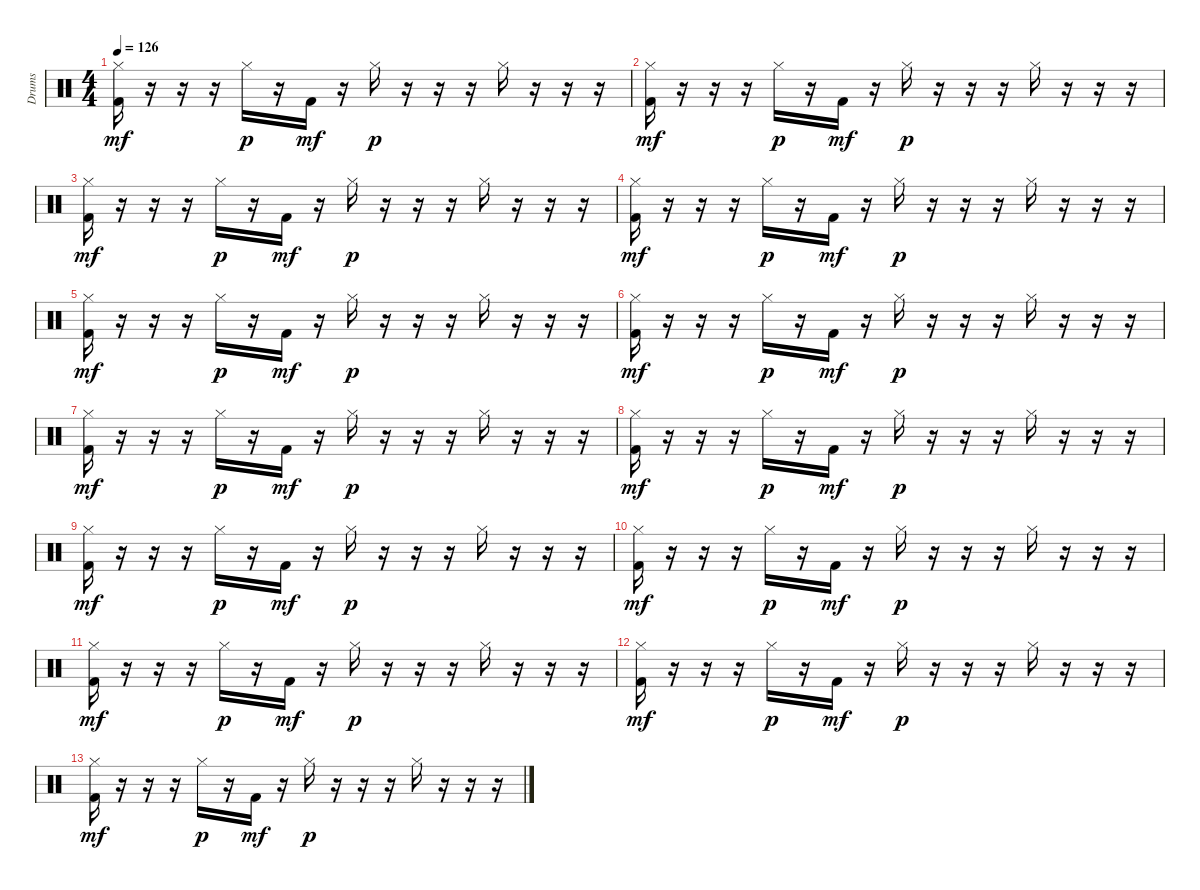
\track ("Drums" "Drums") {instrument percussion}
\staff {score}
\articulation defaults
\ts (4 4)
\tempo 126
\clef neutral
\ks c
("Hi-Hat (closed)" "Kick (hit) 2").16{dy mf} r.16 r.16 r.16 "Hi-Hat (closed)".16{dy p} r.16 "Kick (hit) 2".16{dy mf} r.16 "Hi-Hat (closed)".16{dy p} r.16 r.16 r.16 "Hi-Hat (closed)".16 r.16 r.16 r.16 |
("Hi-Hat (closed)" "Kick (hit) 2").16{dy mf} r.16 r.16 r.16 "Hi-Hat (closed)".16{dy p} r.16 "Kick (hit) 2".16{dy mf} r.16 "Hi-Hat (closed)".16{dy p} r.16 r.16 r.16 "Hi-Hat (closed)".16 r.16 r.16 r.16 |
("Hi-Hat (closed)" "Kick (hit) 2").16{dy mf} r.16 r.16 r.16 "Hi-Hat (closed)".16{dy p} r.16 "Kick (hit) 2".16{dy mf} r.16 "Hi-Hat (closed)".16{dy p} r.16 r.16 r.16 "Hi-Hat (closed)".16 r.16 r.16 r.16 |
("Hi-Hat (closed)" "Kick (hit) 2").16{dy mf} r.16 r.16 r.16 "Hi-Hat (closed)".16{dy p} r.16 "Kick (hit) 2".16{dy mf} r.16 "Hi-Hat (closed)".16{dy p} r.16 r.16 r.16 "Hi-Hat (closed)".16 r.16 r.16 r.16 |
("Hi-Hat (closed)" "Kick (hit) 2").16{dy mf} r.16 r.16 r.16 "Hi-Hat (closed)".16{dy p} r.16 "Kick (hit) 2".16{dy mf} r.16 "Hi-Hat (closed)".16{dy p} r.16 r.16 r.16 "Hi-Hat (closed)".16 r.16 r.16 r.16 |
("Hi-Hat (closed)" "Kick (hit) 2").16{dy mf} r.16 r.16 r.16 "Hi-Hat (closed)".16{dy p} r.16 "Kick (hit) 2".16{dy mf} r.16 "Hi-Hat (closed)".16{dy p} r.16 r.16 r.16 "Hi-Hat (closed)".16 r.16 r.16 r.16 |
("Hi-Hat (closed)" "Kick (hit) 2").16{dy mf} r.16 r.16 r.16 "Hi-Hat (closed)".16{dy p} r.16 "Kick (hit) 2".16{dy mf} r.16 "Hi-Hat (closed)".16{dy p} r.16 r.16 r.16 "Hi-Hat (closed)".16 r.16 r.16 r.16 |
("Hi-Hat (closed)" "Kick (hit) 2").16{dy mf} r.16 r.16 r.16 "Hi-Hat (closed)".16{dy p} r.16 "Kick (hit) 2".16{dy mf} r.16 "Hi-Hat (closed)".16{dy p} r.16 r.16 r.16 "Hi-Hat (closed)".16 r.16 r.16 r.16 |
("Hi-Hat (closed)" "Kick (hit) 2").16{dy mf} r.16 r.16 r.16 "Hi-Hat (closed)".16{dy p} r.16 "Kick (hit) 2".16{dy mf} r.16 "Hi-Hat (closed)".16{dy p} r.16 r.16 r.16 "Hi-Hat (closed)".16 r.16 r.16 r.16 |
("Hi-Hat (closed)" "Kick (hit) 2").16{dy mf} r.16 r.16 r.16 "Hi-Hat (closed)".16{dy p} r.16 "Kick (hit) 2".16{dy mf} r.16 "Hi-Hat (closed)".16{dy p} r.16 r.16 r.16 "Hi-Hat (closed)".16 r.16 r.16 r.16 |
("Hi-Hat (closed)" "Kick (hit) 2").16{dy mf} r.16 r.16 r.16 "Hi-Hat (closed)".16{dy p} r.16 "Kick (hit) 2".16{dy mf} r.16 "Hi-Hat (closed)".16{dy p} r.16 r.16 r.16 "Hi-Hat (closed)".16 r.16 r.16 r.16 |
("Hi-Hat (closed)" "Kick (hit) 2").16{dy mf} r.16 r.16 r.16 "Hi-Hat (closed)".16{dy p} r.16 "Kick (hit) 2".16{dy mf} r.16 "Hi-Hat (closed)".16{dy p} r.16 r.16 r.16 "Hi-Hat (closed)".16 r.16 r.16 r.16 |
("Hi-Hat (closed)" "Kick (hit) 2").16{dy mf} r.16 r.16 r.16 "Hi-Hat (closed)".16{dy p} r.16 "Kick (hit) 2".16{dy mf} r.16 "Hi-Hat (closed)".16{dy p} r.16 r.16 r.16 "Hi-Hat (closed)".16 r.16 r.16 r.16
